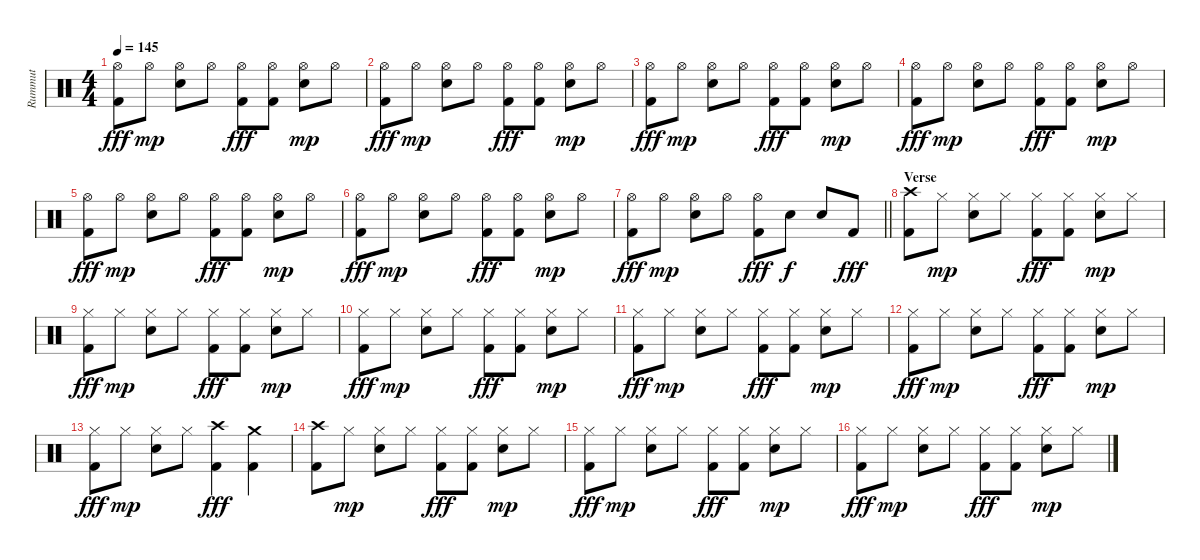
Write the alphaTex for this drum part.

\track ("Rummut" "Rummut") {instrument percussion}
\staff {score}
\articulation defaults
\ts (4 4)
\tempo 145
\clef neutral
\ks c
("Hi-Hat (open)" "Kick (hit) 2").8{dy fff} "Hi-Hat (open)".8{dy mp} ("Hi-Hat (open)" "Snare (hit) 2").8 "Hi-Hat (open)".8 ("Hi-Hat (open)" "Kick (hit) 2").8{dy fff} ("Hi-Hat (open)" "Kick (hit) 2").8 ("Hi-Hat (open)" "Snare (hit) 2").8{dy mp} "Hi-Hat (open)".8 |
("Hi-Hat (open)" "Kick (hit) 2").8{dy fff} "Hi-Hat (open)".8{dy mp} ("Hi-Hat (open)" "Snare (hit) 2").8 "Hi-Hat (open)".8 ("Hi-Hat (open)" "Kick (hit) 2").8{dy fff} ("Hi-Hat (open)" "Kick (hit) 2").8 ("Hi-Hat (open)" "Snare (hit) 2").8{dy mp} "Hi-Hat (open)".8 |
("Hi-Hat (open)" "Kick (hit) 2").8{dy fff} "Hi-Hat (open)".8{dy mp} ("Hi-Hat (open)" "Snare (hit) 2").8 "Hi-Hat (open)".8 ("Hi-Hat (open)" "Kick (hit) 2").8{dy fff} ("Hi-Hat (open)" "Kick (hit) 2").8 ("Hi-Hat (open)" "Snare (hit) 2").8{dy mp} "Hi-Hat (open)".8 |
("Hi-Hat (open)" "Kick (hit) 2").8{dy fff} "Hi-Hat (open)".8{dy mp} ("Hi-Hat (open)" "Snare (hit) 2").8 "Hi-Hat (open)".8 ("Hi-Hat (open)" "Kick (hit) 2").8{dy fff} ("Hi-Hat (open)" "Kick (hit) 2").8 ("Hi-Hat (open)" "Snare (hit) 2").8{dy mp} "Hi-Hat (open)".8 |
("Hi-Hat (open)" "Kick (hit) 2").8{dy fff} "Hi-Hat (open)".8{dy mp} ("Hi-Hat (open)" "Snare (hit) 2").8 "Hi-Hat (open)".8 ("Hi-Hat (open)" "Kick (hit) 2").8{dy fff} ("Hi-Hat (open)" "Kick (hit) 2").8 ("Hi-Hat (open)" "Snare (hit) 2").8{dy mp} "Hi-Hat (open)".8 |
("Hi-Hat (open)" "Kick (hit) 2").8{dy fff} "Hi-Hat (open)".8{dy mp} ("Hi-Hat (open)" "Snare (hit) 2").8 "Hi-Hat (open)".8 ("Hi-Hat (open)" "Kick (hit) 2").8{dy fff} ("Hi-Hat (open)" "Kick (hit) 2").8 ("Hi-Hat (open)" "Snare (hit) 2").8{dy mp} "Hi-Hat (open)".8 |
\barLineRight lightlight
("Hi-Hat (open)" "Kick (hit) 2").8{dy fff} "Hi-Hat (open)".8{dy mp} ("Hi-Hat (open)" "Snare (hit) 2").8 "Hi-Hat (open)".8 ("Hi-Hat (open)" "Kick (hit) 2").8{dy fff} "Snare (hit) 2".8{dy f} "Snare (hit) 2".8 "Kick (hit) 2".8{dy fff} |
\section ("" "Verse")
("Crash high (hit)" "Kick (hit) 2").8 "Hi-Hat (closed)".8{dy mp} ("Hi-Hat (closed)" "Snare (hit) 2").8 "Hi-Hat (closed)".8 ("Hi-Hat (closed)" "Kick (hit) 2").8{dy fff} ("Hi-Hat (closed)" "Kick (hit) 2").8 ("Hi-Hat (closed)" "Snare (hit) 2").8{dy mp} "Hi-Hat (closed)".8 |
("Hi-Hat (closed)" "Kick (hit) 2").8{dy fff} "Hi-Hat (closed)".8{dy mp} ("Hi-Hat (closed)" "Snare (hit) 2").8 "Hi-Hat (closed)".8 ("Hi-Hat (closed)" "Kick (hit) 2").8{dy fff} ("Hi-Hat (closed)" "Kick (hit) 2").8 ("Hi-Hat (closed)" "Snare (hit) 2").8{dy mp} "Hi-Hat (closed)".8 |
("Hi-Hat (closed)" "Kick (hit) 2").8{dy fff} "Hi-Hat (closed)".8{dy mp} ("Hi-Hat (closed)" "Snare (hit) 2").8 "Hi-Hat (closed)".8 ("Hi-Hat (closed)" "Kick (hit) 2").8{dy fff} ("Hi-Hat (closed)" "Kick (hit) 2").8 ("Hi-Hat (closed)" "Snare (hit) 2").8{dy mp} "Hi-Hat (closed)".8 |
("Hi-Hat (closed)" "Kick (hit) 2").8{dy fff} "Hi-Hat (closed)".8{dy mp} ("Hi-Hat (closed)" "Snare (hit) 2").8 "Hi-Hat (closed)".8 ("Hi-Hat (closed)" "Kick (hit) 2").8{dy fff} ("Hi-Hat (closed)" "Kick (hit) 2").8 ("Hi-Hat (closed)" "Snare (hit) 2").8{dy mp} "Hi-Hat (closed)".8 |
("Hi-Hat (closed)" "Kick (hit) 2").8{dy fff} "Hi-Hat (closed)".8{dy mp} ("Hi-Hat (closed)" "Snare (hit) 2").8 "Hi-Hat (closed)".8 ("Hi-Hat (closed)" "Kick (hit) 2").8{dy fff} ("Hi-Hat (closed)" "Kick (hit) 2").8 ("Hi-Hat (closed)" "Snare (hit) 2").8{dy mp} "Hi-Hat (closed)".8 |
("Hi-Hat (closed)" "Kick (hit) 2").8{dy fff} "Hi-Hat (closed)".8{dy mp} ("Hi-Hat (closed)" "Snare (hit) 2").8 "Hi-Hat (closed)".8 ("Crash high (hit)" "Kick (hit) 2").4{dy fff} ("Crash medium (hit)" "Kick (hit) 2").4 |
("Crash high (hit)" "Kick (hit) 2").8 "Hi-Hat (closed)".8{dy mp} ("Hi-Hat (closed)" "Snare (hit) 2").8 "Hi-Hat (closed)".8 ("Hi-Hat (closed)" "Kick (hit) 2").8{dy fff} ("Hi-Hat (closed)" "Kick (hit) 2").8 ("Hi-Hat (closed)" "Snare (hit) 2").8{dy mp} "Hi-Hat (closed)".8 |
("Hi-Hat (closed)" "Kick (hit) 2").8{dy fff} "Hi-Hat (closed)".8{dy mp} ("Hi-Hat (closed)" "Snare (hit) 2").8 "Hi-Hat (closed)".8 ("Hi-Hat (closed)" "Kick (hit) 2").8{dy fff} ("Hi-Hat (closed)" "Kick (hit) 2").8 ("Hi-Hat (closed)" "Snare (hit) 2").8{dy mp} "Hi-Hat (closed)".8 |
("Hi-Hat (closed)" "Kick (hit) 2").8{dy fff} "Hi-Hat (closed)".8{dy mp} ("Hi-Hat (closed)" "Snare (hit) 2").8 "Hi-Hat (closed)".8 ("Hi-Hat (closed)" "Kick (hit) 2").8{dy fff} ("Hi-Hat (closed)" "Kick (hit) 2").8 ("Hi-Hat (closed)" "Snare (hit) 2").8{dy mp} "Hi-Hat (closed)".8
